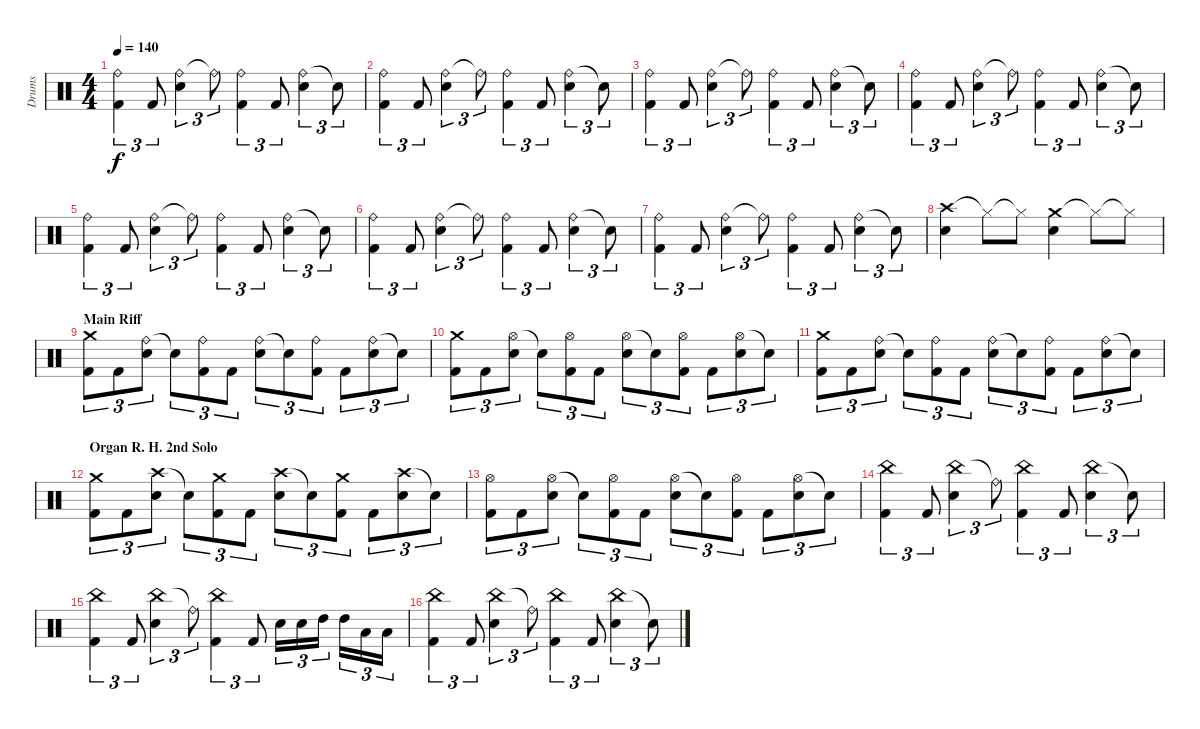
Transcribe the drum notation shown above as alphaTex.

\track ("Drums" "Drums") {instrument percussion}
\staff {score}
\articulation defaults
\ts (4 4)
\tempo 140
\clef neutral
\ks c
("Ride (bell)" "Kick (hit) 2").4{tu (3 2) dy f} "Kick (hit) 2".8{tu (3 2)} ("Ride (bell)" "Electric Snare (hit)").4{tu (3 2)} "Ride (bell)"{t}.8{tu (3 2)} ("Ride (bell)" "Kick (hit) 2").4{tu (3 2)} "Kick (hit) 2".8{tu (3 2)} ("Ride (bell)" "Electric Snare (hit)").4{tu (3 2)} "Snare (hit)"{t}.8{tu (3 2)} |
("Ride (bell)" "Kick (hit) 2").4{tu (3 2)} "Kick (hit) 2".8{tu (3 2)} ("Ride (bell)" "Electric Snare (hit)").4{tu (3 2)} "Ride (bell)"{t}.8{tu (3 2)} ("Ride (bell)" "Kick (hit) 2").4{tu (3 2)} "Kick (hit) 2".8{tu (3 2)} ("Ride (bell)" "Electric Snare (hit)").4{tu (3 2)} "Snare (hit)"{t}.8{tu (3 2)} |
("Ride (bell)" "Kick (hit) 2").4{tu (3 2)} "Kick (hit) 2".8{tu (3 2)} ("Ride (bell)" "Electric Snare (hit)").4{tu (3 2)} "Ride (bell)"{t}.8{tu (3 2)} ("Ride (bell)" "Kick (hit) 2").4{tu (3 2)} "Kick (hit) 2".8{tu (3 2)} ("Ride (bell)" "Electric Snare (hit)").4{tu (3 2)} "Snare (hit)"{t}.8{tu (3 2)} |
("Ride (bell)" "Kick (hit) 2").4{tu (3 2)} "Kick (hit) 2".8{tu (3 2)} ("Ride (bell)" "Electric Snare (hit)").4{tu (3 2)} "Ride (bell)"{t}.8{tu (3 2)} ("Ride (bell)" "Kick (hit) 2").4{tu (3 2)} "Kick (hit) 2".8{tu (3 2)} ("Ride (bell)" "Electric Snare (hit)").4{tu (3 2)} "Snare (hit)"{t}.8{tu (3 2)} |
("Ride (bell)" "Kick (hit) 2").4{tu (3 2)} "Kick (hit) 2".8{tu (3 2)} ("Ride (bell)" "Electric Snare (hit)").4{tu (3 2)} "Ride (bell)"{t}.8{tu (3 2)} ("Ride (bell)" "Kick (hit) 2").4{tu (3 2)} "Kick (hit) 2".8{tu (3 2)} ("Ride (bell)" "Electric Snare (hit)").4{tu (3 2)} "Snare (hit)"{t}.8{tu (3 2)} |
("Ride (bell)" "Kick (hit) 2").4{tu (3 2)} "Kick (hit) 2".8{tu (3 2)} ("Ride (bell)" "Electric Snare (hit)").4{tu (3 2)} "Ride (bell)"{t}.8{tu (3 2)} ("Ride (bell)" "Kick (hit) 2").4{tu (3 2)} "Kick (hit) 2".8{tu (3 2)} ("Ride (bell)" "Electric Snare (hit)").4{tu (3 2)} "Snare (hit)"{t}.8{tu (3 2)} |
("Ride (bell)" "Kick (hit) 2").4{tu (3 2)} "Kick (hit) 2".8{tu (3 2)} ("Ride (bell)" "Electric Snare (hit)").4{tu (3 2)} "Ride (bell)"{t}.8{tu (3 2)} ("Ride (bell)" "Kick (hit) 2").4{tu (3 2)} "Kick (hit) 2".8{tu (3 2)} ("Ride (bell)" "Electric Snare (hit)").4{tu (3 2)} "Snare (hit)"{t}.8{tu (3 2)} |
("Crash high (hit)" "Electric Snare (hit)").4 "Hi-Hat (closed)"{t}.8 "Hi-Hat (closed)"{t}.8 ("Crash medium (hit)" "Electric Snare (hit)").4 "Hi-Hat (closed)"{t}.8 "Hi-Hat (closed)"{t}.8 |
\section ("" "Main Riff")
("Crash medium (hit)" "Kick (hit) 2").8{tu (3 2)} "Kick (hit) 2".8{tu (3 2)} ("Ride (bell)" "Electric Snare (hit)").8{tu (3 2)} "Snare (hit)"{t}.8{tu (3 2)} ("Ride (bell)" "Kick (hit) 2").8{tu (3 2)} "Kick (hit) 2".8{tu (3 2)} ("Ride (bell)" "Electric Snare (hit)").8{tu (3 2)} "Snare (hit)"{t}.8{tu (3 2)} ("Ride (bell)" "Kick (hit) 2").8{tu (3 2)} "Kick (hit) 2".8{tu (3 2)} ("Ride (bell)" "Electric Snare (hit)").8{tu (3 2)} "Snare (hit)"{t}.8{tu (3 2)} |
("Crash medium (hit)" "Kick (hit) 2").8{tu (3 2)} "Kick (hit) 2".8{tu (3 2)} ("Hi-Hat (open)" "Electric Snare (hit)").8{tu (3 2)} "Snare (hit)"{t}.8{tu (3 2)} ("Hi-Hat (open)" "Kick (hit) 2").8{tu (3 2)} "Kick (hit) 2".8{tu (3 2)} ("Hi-Hat (open)" "Electric Snare (hit)").8{tu (3 2)} "Snare (hit)"{t}.8{tu (3 2)} ("Hi-Hat (open)" "Kick (hit) 2").8{tu (3 2)} "Kick (hit) 2".8{tu (3 2)} ("Hi-Hat (open)" "Electric Snare (hit)").8{tu (3 2)} "Snare (hit)"{t}.8{tu (3 2)} |
("Crash medium (hit)" "Kick (hit) 2").8{tu (3 2)} "Kick (hit) 2".8{tu (3 2)} ("Ride (bell)" "Electric Snare (hit)").8{tu (3 2)} "Snare (hit)"{t}.8{tu (3 2)} ("Ride (bell)" "Kick (hit) 2").8{tu (3 2)} "Kick (hit) 2".8{tu (3 2)} ("Ride (bell)" "Electric Snare (hit)").8{tu (3 2)} "Snare (hit)"{t}.8{tu (3 2)} ("Ride (bell)" "Kick (hit) 2").8{tu (3 2)} "Kick (hit) 2".8{tu (3 2)} ("Ride (bell)" "Electric Snare (hit)").8{tu (3 2)} "Snare (hit)"{t}.8{tu (3 2)} |
\section ("" "Organ R. H. 2nd Solo")
("Crash medium (hit)" "Kick (hit) 2").8{tu (3 2)} "Kick (hit) 2".8{tu (3 2)} ("Crash high (hit)" "Electric Snare (hit)").8{tu (3 2)} "Snare (hit)"{t}.8{tu (3 2)} ("Crash medium (hit)" "Kick (hit) 2").8{tu (3 2)} "Kick (hit) 2".8{tu (3 2)} ("Crash high (hit)" "Electric Snare (hit)").8{tu (3 2)} "Snare (hit)"{t}.8{tu (3 2)} ("Crash medium (hit)" "Kick (hit) 2").8{tu (3 2)} "Kick (hit) 2".8{tu (3 2)} ("Crash high (hit)" "Electric Snare (hit)").8{tu (3 2)} "Snare (hit)"{t}.8{tu (3 2)} |
("Hi-Hat (open)" "Kick (hit) 2").8{tu (3 2)} "Kick (hit) 2".8{tu (3 2)} ("Hi-Hat (open)" "Electric Snare (hit)").8{tu (3 2)} "Snare (hit)"{t}.8{tu (3 2)} ("Hi-Hat (open)" "Kick (hit) 2").8{tu (3 2)} "Kick (hit) 2".8{tu (3 2)} ("Hi-Hat (open)" "Electric Snare (hit)").8{tu (3 2)} "Snare (hit)"{t}.8{tu (3 2)} ("Hi-Hat (open)" "Kick (hit) 2").8{tu (3 2)} "Kick (hit) 2".8{tu (3 2)} ("Hi-Hat (open)" "Electric Snare (hit)").8{tu (3 2)} "Snare (hit)"{t}.8{tu (3 2)} |
("China (hit)" "Kick (hit) 2").4{tu (3 2)} "Kick (hit) 2".8{tu (3 2)} ("China (hit)" "Electric Snare (hit)").4{tu (3 2)} "Ride (bell)"{t}.8{tu (3 2)} ("China (hit)" "Kick (hit) 2").4{tu (3 2)} "Kick (hit) 2".8{tu (3 2)} ("China (hit)" "Electric Snare (hit)").4{tu (3 2)} "Snare (hit)"{t}.8{tu (3 2)} |
("China (hit)" "Kick (hit) 2").4{tu (3 2)} "Kick (hit) 2".8{tu (3 2)} ("China (hit)" "Electric Snare (hit)").4{tu (3 2)} "Ride (bell)"{t}.8{tu (3 2)} ("China (hit)" "Kick (hit) 2").4{tu (3 2)} "Kick (hit) 2".8{tu (3 2)} "Electric Snare (hit)".16{tu (3 2)} "Electric Snare (hit)".16{tu (3 2)} "High Tom (hit)".16{tu (3 2)} "High Tom (hit)".16{tu (3 2)} "Low Tom (hit)".16{tu (3 2)} "Low Tom (hit)".16{tu (3 2)} |
("China (hit)" "Kick (hit) 2").4{tu (3 2)} "Kick (hit) 2".8{tu (3 2)} ("China (hit)" "Electric Snare (hit)").4{tu (3 2)} "Ride (bell)"{t}.8{tu (3 2)} ("China (hit)" "Kick (hit) 2").4{tu (3 2)} "Kick (hit) 2".8{tu (3 2)} ("China (hit)" "Electric Snare (hit)").4{tu (3 2)} "Snare (hit)"{t}.8{tu (3 2)}
